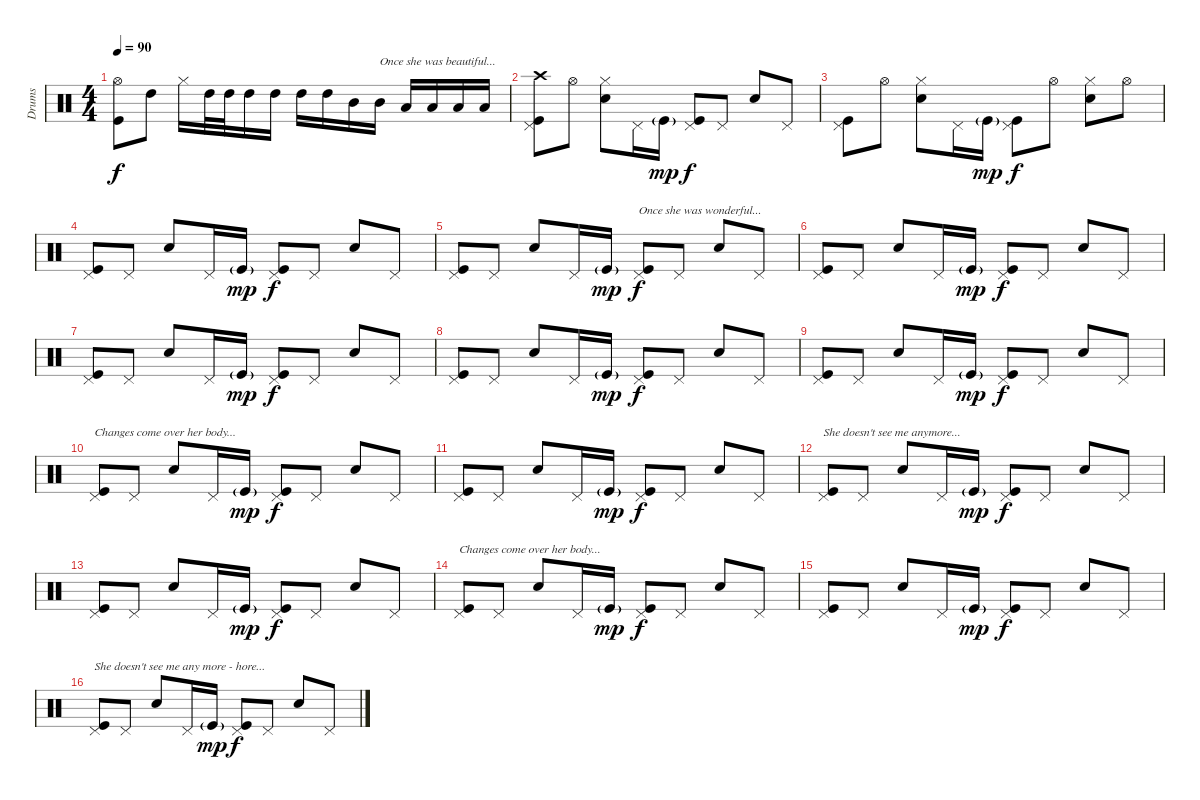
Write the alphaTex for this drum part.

\track ("Drums" "Drums") {instrument percussion}
\staff {score}
\articulation defaults
\ts (4 4)
\tempo 90
\clef neutral
\ks c
("Kick (hit)" "Hi-Hat (open)").8{dy f} "High Tom (hit)".8 "Hi-Hat (closed)".16 "High Tom (hit)".32 "High Tom (hit)".32 "High Tom (hit)".16 "High Tom (hit)".16 "High Tom (hit)".16 "High Tom (hit)".16 "Mid Tom (hit)".16 "Mid Tom (hit)".16{txt "Once she was beautiful..."} "Low Tom (hit)".16 "Low Tom (hit)".16 "Low Tom (hit)".16 "Low Floor Tom (hit)".16 |
("Kick (hit)" "Pedal Hi-Hat (hit)" "Crash high (hit)").8 "Hi-Hat (open)".8 ("Snare (hit) 2" "Hi-Hat (closed)").8 "Pedal Hi-Hat (hit)".16 "Kick (hit)"{g}.16{dy mp} ("Kick (hit)" "Pedal Hi-Hat (hit)").8{dy f} "Pedal Hi-Hat (hit)".8 "Snare (hit) 2".8 "Pedal Hi-Hat (hit)".8 |
("Kick (hit)" "Pedal Hi-Hat (hit)").8 "Hi-Hat (open)".8 ("Snare (hit) 2" "Hi-Hat (closed)").8 "Pedal Hi-Hat (hit)".16 "Kick (hit)"{g}.16{dy mp} ("Kick (hit)" "Pedal Hi-Hat (hit)").8{dy f} "Hi-Hat (open)".8 ("Snare (hit) 2" "Hi-Hat (closed)").8 "Hi-Hat (open)".8 |
("Kick (hit)" "Pedal Hi-Hat (hit)").8 "Pedal Hi-Hat (hit)".8 "Snare (hit) 2".8 "Pedal Hi-Hat (hit)".16 "Kick (hit)"{g}.16{dy mp} ("Kick (hit)" "Pedal Hi-Hat (hit)").8{dy f} "Pedal Hi-Hat (hit)".8 "Snare (hit) 2".8 "Pedal Hi-Hat (hit)".8 |
("Kick (hit)" "Pedal Hi-Hat (hit)").8 "Pedal Hi-Hat (hit)".8 "Snare (hit) 2".8 "Pedal Hi-Hat (hit)".16 "Kick (hit)"{g}.16{dy mp} ("Kick (hit)" "Pedal Hi-Hat (hit)").8{txt "Once she was wonderful..." dy f} "Pedal Hi-Hat (hit)".8 "Snare (hit) 2".8 "Pedal Hi-Hat (hit)".8 |
("Kick (hit)" "Pedal Hi-Hat (hit)").8 "Pedal Hi-Hat (hit)".8 "Snare (hit) 2".8 "Pedal Hi-Hat (hit)".16 "Kick (hit)"{g}.16{dy mp} ("Kick (hit)" "Pedal Hi-Hat (hit)").8{dy f} "Pedal Hi-Hat (hit)".8 "Snare (hit) 2".8 "Pedal Hi-Hat (hit)".8 |
("Kick (hit)" "Pedal Hi-Hat (hit)").8 "Pedal Hi-Hat (hit)".8 "Snare (hit) 2".8 "Pedal Hi-Hat (hit)".16 "Kick (hit)"{g}.16{dy mp} ("Kick (hit)" "Pedal Hi-Hat (hit)").8{dy f} "Pedal Hi-Hat (hit)".8 "Snare (hit) 2".8 "Pedal Hi-Hat (hit)".8 |
("Kick (hit)" "Pedal Hi-Hat (hit)").8 "Pedal Hi-Hat (hit)".8 "Snare (hit) 2".8 "Pedal Hi-Hat (hit)".16 "Kick (hit)"{g}.16{dy mp} ("Kick (hit)" "Pedal Hi-Hat (hit)").8{dy f} "Pedal Hi-Hat (hit)".8 "Snare (hit) 2".8 "Pedal Hi-Hat (hit)".8 |
("Kick (hit)" "Pedal Hi-Hat (hit)").8 "Pedal Hi-Hat (hit)".8 "Snare (hit) 2".8 "Pedal Hi-Hat (hit)".16 "Kick (hit)"{g}.16{dy mp} ("Kick (hit)" "Pedal Hi-Hat (hit)").8{dy f} "Pedal Hi-Hat (hit)".8 "Snare (hit) 2".8 "Pedal Hi-Hat (hit)".8 |
("Kick (hit)" "Pedal Hi-Hat (hit)").8{txt "Changes come over her body..."} "Pedal Hi-Hat (hit)".8 "Snare (hit) 2".8 "Pedal Hi-Hat (hit)".16 "Kick (hit)"{g}.16{dy mp} ("Kick (hit)" "Pedal Hi-Hat (hit)").8{dy f} "Pedal Hi-Hat (hit)".8 "Snare (hit) 2".8 "Pedal Hi-Hat (hit)".8 |
("Kick (hit)" "Pedal Hi-Hat (hit)").8 "Pedal Hi-Hat (hit)".8 "Snare (hit) 2".8 "Pedal Hi-Hat (hit)".16 "Kick (hit)"{g}.16{dy mp} ("Kick (hit)" "Pedal Hi-Hat (hit)").8{dy f} "Pedal Hi-Hat (hit)".8 "Snare (hit) 2".8 "Pedal Hi-Hat (hit)".8 |
("Kick (hit)" "Pedal Hi-Hat (hit)").8{txt "She doesn't see me anymore..."} "Pedal Hi-Hat (hit)".8 "Snare (hit) 2".8 "Pedal Hi-Hat (hit)".16 "Kick (hit)"{g}.16{dy mp} ("Kick (hit)" "Pedal Hi-Hat (hit)").8{dy f} "Pedal Hi-Hat (hit)".8 "Snare (hit) 2".8 "Pedal Hi-Hat (hit)".8 |
("Kick (hit)" "Pedal Hi-Hat (hit)").8 "Pedal Hi-Hat (hit)".8 "Snare (hit) 2".8 "Pedal Hi-Hat (hit)".16 "Kick (hit)"{g}.16{dy mp} ("Kick (hit)" "Pedal Hi-Hat (hit)").8{dy f} "Pedal Hi-Hat (hit)".8 "Snare (hit) 2".8 "Pedal Hi-Hat (hit)".8 |
("Kick (hit)" "Pedal Hi-Hat (hit)").8{txt "Changes come over her body..."} "Pedal Hi-Hat (hit)".8 "Snare (hit) 2".8 "Pedal Hi-Hat (hit)".16 "Kick (hit)"{g}.16{dy mp} ("Kick (hit)" "Pedal Hi-Hat (hit)").8{dy f} "Pedal Hi-Hat (hit)".8 "Snare (hit) 2".8 "Pedal Hi-Hat (hit)".8 |
("Kick (hit)" "Pedal Hi-Hat (hit)").8 "Pedal Hi-Hat (hit)".8 "Snare (hit) 2".8 "Pedal Hi-Hat (hit)".16 "Kick (hit)"{g}.16{dy mp} ("Kick (hit)" "Pedal Hi-Hat (hit)").8{dy f} "Pedal Hi-Hat (hit)".8 "Snare (hit) 2".8 "Pedal Hi-Hat (hit)".8 |
("Kick (hit)" "Pedal Hi-Hat (hit)").8{txt "She doesn't see me any more - hore..."} "Pedal Hi-Hat (hit)".8 "Snare (hit) 2".8 "Pedal Hi-Hat (hit)".16 "Kick (hit)"{g}.16{dy mp} ("Kick (hit)" "Pedal Hi-Hat (hit)").8{dy f} "Pedal Hi-Hat (hit)".8 "Snare (hit) 2".8 "Pedal Hi-Hat (hit)".8
